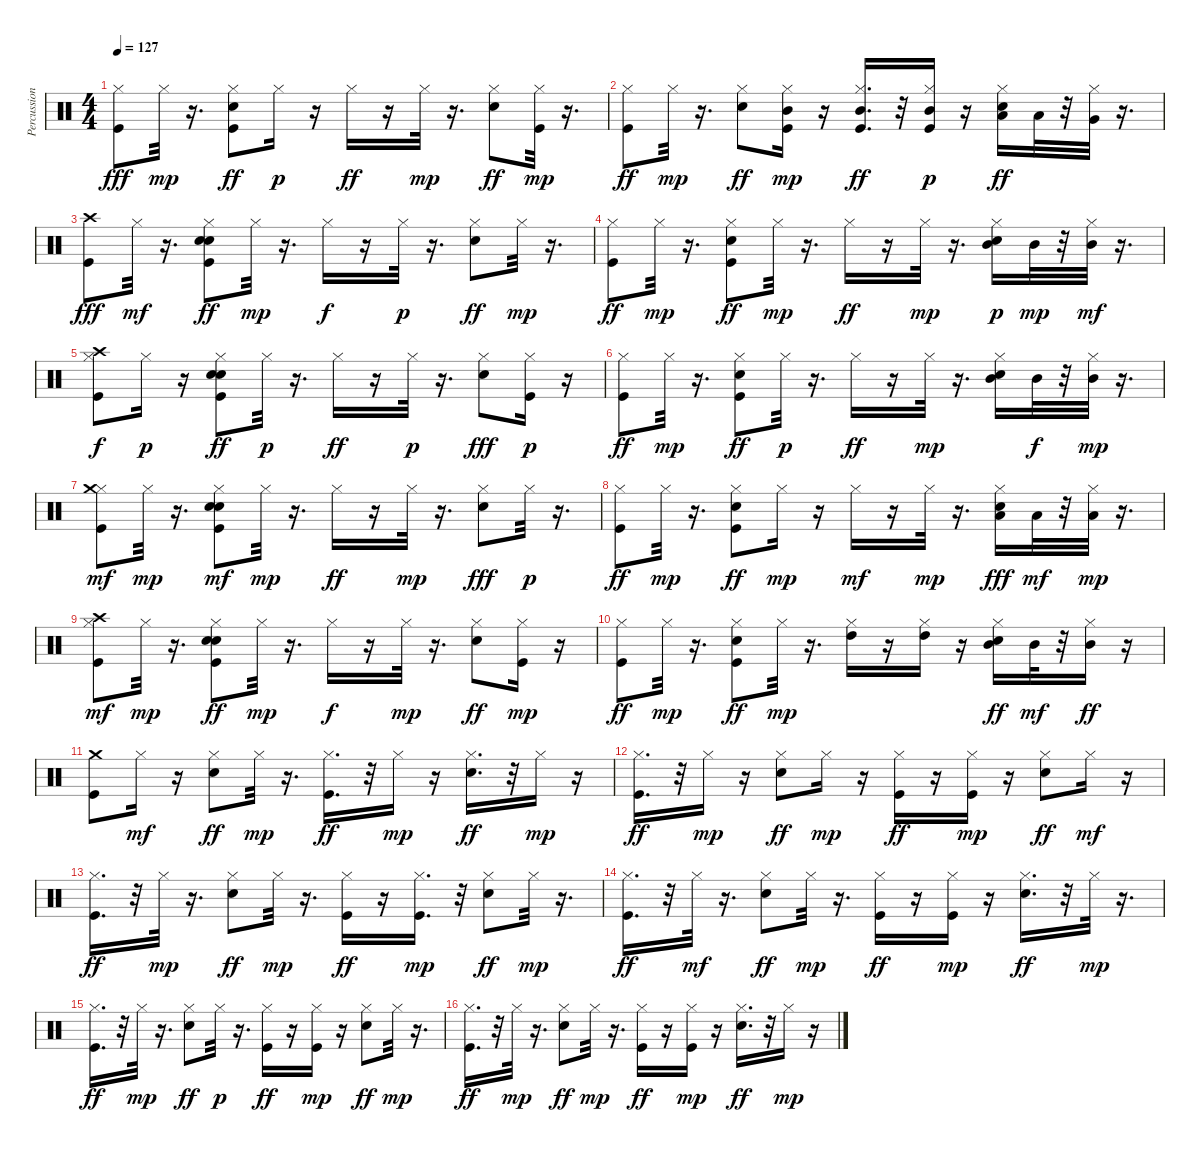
\track ("Percussions (drums + hihats)" "Percussion") {instrument percussion}
\staff {score}
\articulation defaults
\ts (4 4)
\tempo 127
\clef neutral
\ks c
("Kick (hit)" "Hi-Hat (closed)").8{dy fff} "Hi-Hat (closed)".32{dy mp} r.16{d} ("Kick (hit)" "Snare (hit) 2" "Hi-Hat (closed)").8{dy ff} "Hi-Hat (closed)".16{dy p} r.16 "Hi-Hat (closed)".16{dy ff} r.16 "Hi-Hat (closed)".32{dy mp} r.16{d} ("Snare (hit) 2" "Hi-Hat (closed)").8{dy ff} ("Kick (hit)" "Hi-Hat (closed)").32{dy mp} r.16{d} |
("Kick (hit)" "Hi-Hat (closed)").8{dy ff} "Hi-Hat (closed)".32{dy mp} r.16{d} ("Snare (hit) 2" "Hi-Hat (closed)").8{dy ff} ("Kick (hit)" "Hi-Hat (closed)" "Mid Tom (hit)").16{dy mp} r.16 ("Kick (hit)" "Hi-Hat (closed)" "Mid Tom (hit)").16{d dy ff} r.32 ("Kick (hit)" "Hi-Hat (closed)" "Mid Tom (hit)").16{dy p} r.16 ("Snare (hit) 2" "Hi-Hat (closed)" "Low Tom (hit)").16{dy ff} "Low Tom (hit)".32 r.32 ("Hi-Hat (closed)" "Very Low Tom (hit)").32 r.16{d} |
("Kick (hit)" "Crash high (hit)").8{dy fff} "Hi-Hat (closed)".32{dy mf} r.16{d} ("Kick (hit)" "Snare (hit) 2" "Electric Snare (hit)" "Hi-Hat (closed)").8{dy ff} "Hi-Hat (closed)".32{dy mp} r.16{d} "Hi-Hat (closed)".16{dy f} r.16 "Hi-Hat (closed)".32{dy p} r.16{d} ("Snare (hit) 2" "Hi-Hat (closed)").8{dy ff} "Hi-Hat (closed)".32{dy mp} r.16{d} |
("Kick (hit)" "Hi-Hat (closed)").8{dy ff} "Hi-Hat (closed)".32{dy mp} r.16{d} ("Kick (hit)" "Snare (hit) 2" "Hi-Hat (closed)").8{dy ff} "Hi-Hat (closed)".32{dy mp} r.16{d} "Hi-Hat (closed)".16{dy ff} r.16 "Hi-Hat (closed)".32{dy mp} r.16{d} ("Snare (hit) 2" "Hi-Hat (closed)" "Mid Tom (hit)").16{dy p} "Mid Tom (hit)".32{dy mp} r.32 ("Hi-Hat (closed)" "Mid Tom (hit)").32{dy mf} r.16{d} |
("Kick (hit)" "Hi-Hat (closed)" "Crash high (hit)").8{dy f} "Hi-Hat (closed)".16{dy p} r.16 ("Kick (hit)" "Snare (hit) 2" "Electric Snare (hit)" "Hi-Hat (closed)").8{dy ff} "Hi-Hat (closed)".32{dy p} r.16{d} "Hi-Hat (closed)".16{dy ff} r.16 "Hi-Hat (closed)".32{dy p} r.16{d} ("Snare (hit) 2" "Hi-Hat (closed)").8{dy fff} ("Kick (hit)" "Hi-Hat (closed)").16{dy p} r.16 |
("Kick (hit)" "Hi-Hat (closed)").8{dy ff} "Hi-Hat (closed)".32{dy mp} r.16{d} ("Kick (hit)" "Snare (hit) 2" "Hi-Hat (closed)").8{dy ff} "Hi-Hat (closed)".32{dy p} r.16{d} "Hi-Hat (closed)".16{dy ff} r.16 "Hi-Hat (closed)".32{dy mp} r.16{d} ("Snare (hit) 2" "Hi-Hat (closed)" "Mid Tom (hit)").16 "Mid Tom (hit)".32{dy f} r.32 ("Hi-Hat (closed)" "Mid Tom (hit)").32{dy mp} r.16{d} |
("Kick (hit)" "Hi-Hat (closed)" "Crash medium (hit)").8{dy mf} "Hi-Hat (closed)".32{dy mp} r.16{d} ("Kick (hit)" "Snare (hit) 2" "Electric Snare (hit)" "Hi-Hat (closed)").8{dy mf} "Hi-Hat (closed)".32{dy mp} r.16{d} "Hi-Hat (closed)".16{dy ff} r.16 "Hi-Hat (closed)".32{dy mp} r.16{d} ("Snare (hit) 2" "Hi-Hat (closed)").8{dy fff} "Hi-Hat (closed)".32{dy p} r.16{d} |
("Kick (hit)" "Hi-Hat (closed)").8{dy ff} "Hi-Hat (closed)".32{dy mp} r.16{d} ("Kick (hit)" "Snare (hit) 2" "Hi-Hat (closed)").8{dy ff} "Hi-Hat (closed)".16{dy mp} r.16 "Hi-Hat (closed)".16{dy mf} r.16 "Hi-Hat (closed)".32{dy mp} r.16{d} ("Snare (hit) 2" "Hi-Hat (closed)" "Low Tom (hit)").16{dy fff} "Low Tom (hit)".32{dy mf} r.32 ("Hi-Hat (closed)" "Low Tom (hit)").32{dy mp} r.16{d} |
("Kick (hit)" "Hi-Hat (closed)" "Crash high (hit)").8{dy mf} "Hi-Hat (closed)".32{dy mp} r.16{d} ("Kick (hit)" "Snare (hit) 2" "Electric Snare (hit)" "Hi-Hat (closed)").8{dy ff} "Hi-Hat (closed)".32{dy mp} r.16{d} "Hi-Hat (closed)".16{dy f} r.16 "Hi-Hat (closed)".32{dy mp} r.16{d} ("Snare (hit) 2" "Hi-Hat (closed)").8{dy ff} ("Kick (hit)" "Hi-Hat (closed)").16{dy mp} r.16 |
("Kick (hit)" "Hi-Hat (closed)").8{dy ff} "Hi-Hat (closed)".32{dy mp} r.16{d} ("Kick (hit)" "Snare (hit) 2" "Hi-Hat (closed)").8{dy ff} "Hi-Hat (closed)".32{dy mp} r.16{d} ("Hi-Hat (closed)" "High Tom (hit)").16 r.16 ("Hi-Hat (closed)" "High Tom (hit)").16 r.16 ("Snare (hit) 2" "Hi-Hat (closed)" "Mid Tom (hit)").16{dy ff} "Mid Tom (hit)".32{dy mf} r.32 ("Hi-Hat (closed)" "Mid Tom (hit)").16{dy ff} r.16 |
("Kick (hit)" "Crash medium (hit)").8 "Hi-Hat (closed)".16{dy mf} r.16 ("Snare (hit) 2" "Hi-Hat (closed)").8{dy ff} "Hi-Hat (closed)".32{dy mp} r.16{d} ("Kick (hit)" "Hi-Hat (closed)").16{d dy ff} r.32 "Hi-Hat (closed)".16{dy mp} r.16 ("Snare (hit) 2" "Hi-Hat (closed)").16{d dy ff} r.32 "Hi-Hat (closed)".16{dy mp} r.16 |
("Kick (hit)" "Hi-Hat (closed)").16{d dy ff} r.32 "Hi-Hat (closed)".16{dy mp} r.16 ("Snare (hit) 2" "Hi-Hat (closed)").8{dy ff} "Hi-Hat (closed)".16{dy mp} r.16 ("Kick (hit)" "Hi-Hat (closed)").16{dy ff} r.16 ("Kick (hit)" "Hi-Hat (closed)").16{dy mp} r.16 ("Snare (hit) 2" "Hi-Hat (closed)").8{dy ff} "Hi-Hat (closed)".16{dy mf} r.16 |
("Kick (hit)" "Hi-Hat (closed)").16{d dy ff} r.32 "Hi-Hat (closed)".32{dy mp} r.16{d} ("Snare (hit) 2" "Hi-Hat (closed)").8{dy ff} "Hi-Hat (closed)".32{dy mp} r.16{d} ("Kick (hit)" "Hi-Hat (closed)").16{dy ff} r.16 ("Kick (hit)" "Hi-Hat (closed)").16{d dy mp} r.32 ("Snare (hit) 2" "Hi-Hat (closed)").8{dy ff} "Hi-Hat (closed)".32{dy mp} r.16{d} |
("Kick (hit)" "Hi-Hat (closed)").16{d dy ff} r.32 "Hi-Hat (closed)".32{dy mf} r.16{d} ("Snare (hit) 2" "Hi-Hat (closed)").8{dy ff} "Hi-Hat (closed)".32{dy mp} r.16{d} ("Kick (hit)" "Hi-Hat (closed)").16{dy ff} r.16 ("Kick (hit)" "Hi-Hat (closed)").16{dy mp} r.16 ("Snare (hit) 2" "Hi-Hat (closed)").16{d dy ff} r.32 "Hi-Hat (closed)".32{dy mp} r.16{d} |
("Kick (hit)" "Hi-Hat (closed)").16{d dy ff} r.32 "Hi-Hat (closed)".32{dy mp} r.16{d} ("Snare (hit) 2" "Hi-Hat (closed)").8{dy ff} "Hi-Hat (closed)".32{dy p} r.16{d} ("Kick (hit)" "Hi-Hat (closed)").16{dy ff} r.16 ("Kick (hit)" "Hi-Hat (closed)").16{dy mp} r.16 ("Snare (hit) 2" "Hi-Hat (closed)").8{dy ff} "Hi-Hat (closed)".32{dy mp} r.16{d} |
("Kick (hit)" "Hi-Hat (closed)").16{d dy ff} r.32 "Hi-Hat (closed)".32{dy mp} r.16{d} ("Snare (hit) 2" "Hi-Hat (closed)").8{dy ff} "Hi-Hat (closed)".32{dy mp} r.16{d} ("Kick (hit)" "Hi-Hat (closed)").16{dy ff} r.16 ("Kick (hit)" "Hi-Hat (closed)").16{dy mp} r.16 ("Snare (hit) 2" "Hi-Hat (closed)").16{d dy ff} r.32 "Hi-Hat (closed)".16{dy mp} r.16
